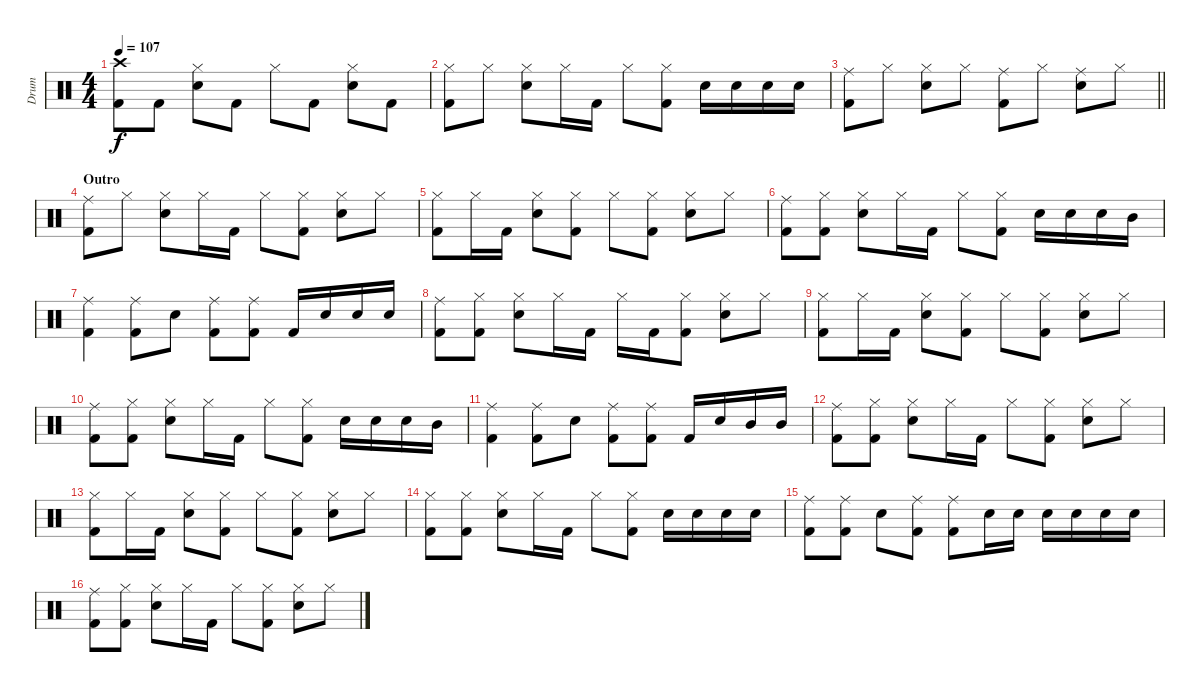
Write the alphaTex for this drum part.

\track ("Drum" "Drum") {instrument percussion}
\staff {score}
\articulation defaults
\ts (4 4)
\tempo 107
\clef neutral
\ks c
("Crash high (hit)" "Kick (hit) 2").8{dy f} "Kick (hit) 2".8 ("Hi-Hat (closed)" "Snare (hit) 2").8 "Kick (hit) 2".8 "Hi-Hat (closed)".8 "Kick (hit) 2".8 ("Hi-Hat (closed)" "Snare (hit) 2").8 "Kick (hit) 2".8 |
("Hi-Hat (closed)" "Kick (hit) 2").8 "Hi-Hat (closed)".8 ("Hi-Hat (closed)" "Snare (hit) 2").8 "Hi-Hat (closed)".16 "Kick (hit) 2".16 "Hi-Hat (closed)".8 ("Hi-Hat (closed)" "Kick (hit) 2").8 "Snare (hit) 2".16 "Snare (hit) 2".16 "Snare (hit) 2".16 "Snare (hit) 2".16 |
\barLineRight lightlight
("Ride (middle)" "Kick (hit) 2").8 "Hi-Hat (closed)".8 ("Hi-Hat (closed)" "Snare (hit) 2").8 "Hi-Hat (closed)".8 ("Ride (middle)" "Kick (hit) 2").8 "Hi-Hat (closed)".8 ("Ride (middle)" "Snare (hit) 2").8 "Hi-Hat (closed)".8 |
\section ("" "Outro")
("Ride (middle)" "Kick (hit) 2").8 "Hi-Hat (closed)".8 ("Hi-Hat (closed)" "Snare (hit) 2").8 "Hi-Hat (closed)".16 "Kick (hit) 2".16 "Hi-Hat (closed)".8 ("Hi-Hat (closed)" "Kick (hit) 2").8 ("Hi-Hat (closed)" "Snare (hit) 2").8 "Hi-Hat (closed)".8 |
("Hi-Hat (closed)" "Kick (hit) 2").8 "Hi-Hat (closed)".16 "Kick (hit) 2".16 ("Hi-Hat (closed)" "Snare (hit) 2").8 ("Hi-Hat (closed)" "Kick (hit) 2").8 "Hi-Hat (closed)".8 ("Hi-Hat (closed)" "Kick (hit) 2").8 ("Hi-Hat (closed)" "Snare (hit) 2").8 "Hi-Hat (closed)".8 |
("Ride (middle)" "Kick (hit) 2").8 ("Hi-Hat (closed)" "Kick (hit) 2").8 ("Hi-Hat (closed)" "Snare (hit) 2").8 "Hi-Hat (closed)".16 "Kick (hit) 2".16 "Hi-Hat (closed)".8 ("Hi-Hat (closed)" "Kick (hit) 2").8 "Snare (hit) 2".16 "Snare (hit) 2".16 "Snare (hit) 2".16 "Mid Tom (hit)".16 |
("Ride (middle)" "Kick (hit) 2").4 ("Ride (middle)" "Kick (hit) 2").8 "Snare (hit) 2".8 ("Ride (middle)" "Kick (hit) 2").8 ("Ride (middle)" "Kick (hit) 2").8 "Kick (hit) 2".16 "Snare (hit) 2".16 "Snare (hit) 2".16 "Snare (hit) 2".16 |
("Ride (middle)" "Kick (hit) 2").8 ("Hi-Hat (closed)" "Kick (hit) 2").8 ("Hi-Hat (closed)" "Snare (hit) 2").8 "Hi-Hat (closed)".16 "Kick (hit) 2".16 "Hi-Hat (closed)".16 "Kick (hit) 2".16 ("Hi-Hat (closed)" "Kick (hit) 2").8 ("Hi-Hat (closed)" "Snare (hit) 2").8 "Hi-Hat (closed)".8 |
("Hi-Hat (closed)" "Kick (hit) 2").8 "Hi-Hat (closed)".16 "Kick (hit) 2".16 ("Hi-Hat (closed)" "Snare (hit) 2").8 ("Hi-Hat (closed)" "Kick (hit) 2").8 "Hi-Hat (closed)".8 ("Hi-Hat (closed)" "Kick (hit) 2").8 ("Hi-Hat (closed)" "Snare (hit) 2").8 "Hi-Hat (closed)".8 |
("Ride (middle)" "Kick (hit) 2").8 ("Hi-Hat (closed)" "Kick (hit) 2").8 ("Hi-Hat (closed)" "Snare (hit) 2").8 "Hi-Hat (closed)".16 "Kick (hit) 2".16 "Hi-Hat (closed)".8 ("Hi-Hat (closed)" "Kick (hit) 2").8 "Snare (hit) 2".16 "Snare (hit) 2".16 "Snare (hit) 2".16 "Mid Tom (hit)".16 |
("Ride (middle)" "Kick (hit) 2").4 ("Ride (middle)" "Kick (hit) 2").8 "Snare (hit) 2".8 ("Ride (middle)" "Kick (hit) 2").8 ("Ride (middle)" "Kick (hit) 2").8 "Kick (hit) 2".16 "Snare (hit) 2".16 "Mid Tom (hit)".16 "Mid Tom (hit)".16 |
("Ride (middle)" "Kick (hit) 2").8 ("Hi-Hat (closed)" "Kick (hit) 2").8 ("Hi-Hat (closed)" "Snare (hit) 2").8 "Hi-Hat (closed)".16 "Kick (hit) 2".16 "Hi-Hat (closed)".8 ("Hi-Hat (closed)" "Kick (hit) 2").8 ("Hi-Hat (closed)" "Snare (hit) 2").8 "Hi-Hat (closed)".8 |
("Hi-Hat (closed)" "Kick (hit) 2").8 "Hi-Hat (closed)".16 "Kick (hit) 2".16 ("Hi-Hat (closed)" "Snare (hit) 2").8 ("Hi-Hat (closed)" "Kick (hit) 2").8 "Hi-Hat (closed)".8 ("Hi-Hat (closed)" "Kick (hit) 2").8 ("Hi-Hat (closed)" "Snare (hit) 2").8 "Hi-Hat (closed)".8 |
("Hi-Hat (closed)" "Kick (hit) 2").8 ("Hi-Hat (closed)" "Kick (hit) 2").8 ("Hi-Hat (closed)" "Snare (hit) 2").8 "Hi-Hat (closed)".16 "Kick (hit) 2".16 "Hi-Hat (closed)".8 ("Hi-Hat (closed)" "Kick (hit) 2").8 "Snare (hit) 2".16 "Snare (hit) 2".16 "Snare (hit) 2".16 "Snare (hit) 2".16 |
("Ride (middle)" "Kick (hit) 2").8 ("Ride (middle)" "Kick (hit) 2").8 "Snare (hit) 2".8 ("Ride (middle)" "Kick (hit) 2").8 ("Ride (middle)" "Kick (hit) 2").8 "Snare (hit) 2".16 "Snare (hit) 2".16 "Snare (hit) 2".16 "Snare (hit) 2".16 "Snare (hit) 2".16 "Snare (hit) 2".16 |
("Ride (middle)" "Kick (hit) 2").8 ("Hi-Hat (closed)" "Kick (hit) 2").8 ("Hi-Hat (closed)" "Snare (hit) 2").8 "Hi-Hat (closed)".16 "Kick (hit) 2".16 "Hi-Hat (closed)".8 ("Hi-Hat (closed)" "Kick (hit) 2").8 ("Hi-Hat (closed)" "Snare (hit) 2").8 "Hi-Hat (closed)".8
